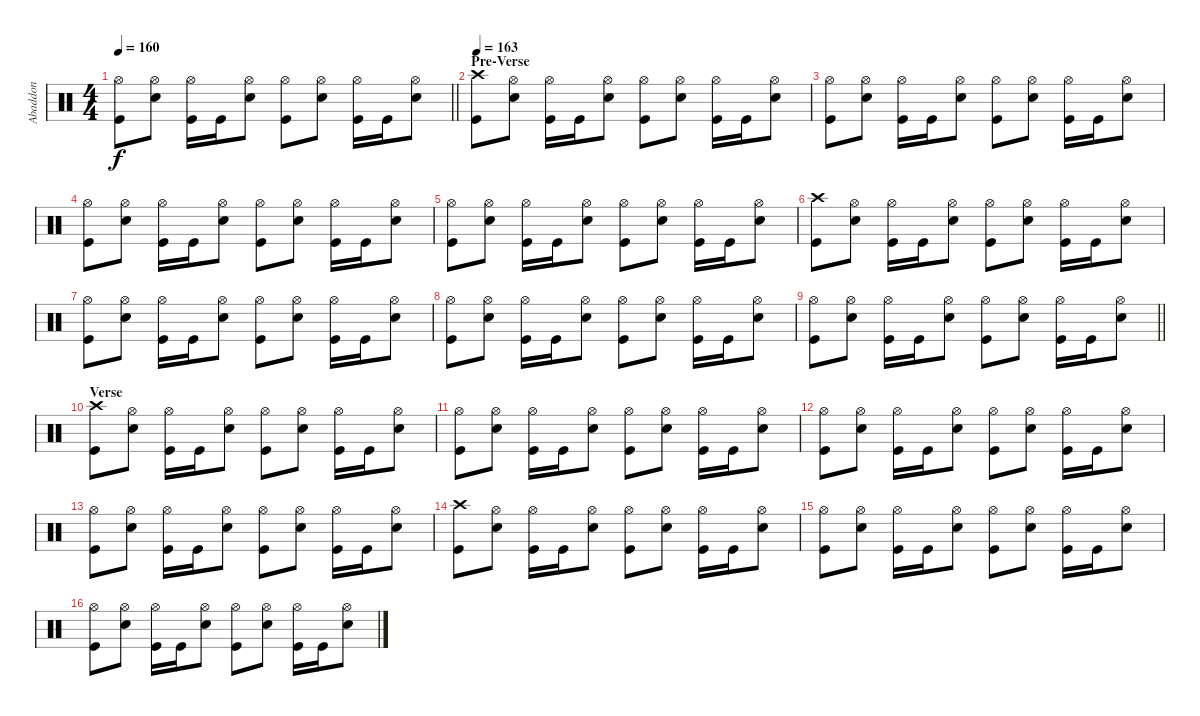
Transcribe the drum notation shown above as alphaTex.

\track ("Abaddon" "Abaddon") {instrument percussion}
\staff {score}
\articulation defaults
\ts (4 4)
\tempo 160
\clef neutral
\barLineRight lightlight
\ks c
("Hi-Hat (open)" "Kick (hit)").8{dy f} ("Hi-Hat (open)" "Electric Snare (hit)").8 ("Hi-Hat (open)" "Kick (hit)").16 "Kick (hit)".16 ("Hi-Hat (open)" "Electric Snare (hit)").8 ("Hi-Hat (open)" "Kick (hit)").8 ("Hi-Hat (open)" "Electric Snare (hit)").8 ("Hi-Hat (open)" "Kick (hit)").16 "Kick (hit)".16 ("Hi-Hat (open)" "Electric Snare (hit)").8 |
\section ("" "Pre-Verse")
\tempo 163
("Crash high (hit)" "Kick (hit)").8 ("Hi-Hat (open)" "Electric Snare (hit)").8 ("Hi-Hat (open)" "Kick (hit)").16 "Kick (hit)".16 ("Hi-Hat (open)" "Electric Snare (hit)").8 ("Hi-Hat (open)" "Kick (hit)").8 ("Hi-Hat (open)" "Electric Snare (hit)").8 ("Hi-Hat (open)" "Kick (hit)").16 "Kick (hit)".16 ("Hi-Hat (open)" "Electric Snare (hit)").8 |
("Hi-Hat (open)" "Kick (hit)").8 ("Hi-Hat (open)" "Electric Snare (hit)").8 ("Hi-Hat (open)" "Kick (hit)").16 "Kick (hit)".16 ("Hi-Hat (open)" "Electric Snare (hit)").8 ("Hi-Hat (open)" "Kick (hit)").8 ("Hi-Hat (open)" "Electric Snare (hit)").8 ("Hi-Hat (open)" "Kick (hit)").16 "Kick (hit)".16 ("Hi-Hat (open)" "Electric Snare (hit)").8 |
("Hi-Hat (open)" "Kick (hit)").8 ("Hi-Hat (open)" "Electric Snare (hit)").8 ("Hi-Hat (open)" "Kick (hit)").16 "Kick (hit)".16 ("Hi-Hat (open)" "Electric Snare (hit)").8 ("Hi-Hat (open)" "Kick (hit)").8 ("Hi-Hat (open)" "Electric Snare (hit)").8 ("Hi-Hat (open)" "Kick (hit)").16 "Kick (hit)".16 ("Hi-Hat (open)" "Electric Snare (hit)").8 |
("Hi-Hat (open)" "Kick (hit)").8 ("Hi-Hat (open)" "Electric Snare (hit)").8 ("Hi-Hat (open)" "Kick (hit)").16 "Kick (hit)".16 ("Hi-Hat (open)" "Electric Snare (hit)").8 ("Hi-Hat (open)" "Kick (hit)").8 ("Hi-Hat (open)" "Electric Snare (hit)").8 ("Hi-Hat (open)" "Kick (hit)").16 "Kick (hit)".16 ("Hi-Hat (open)" "Electric Snare (hit)").8 |
("Crash high (hit)" "Kick (hit)").8 ("Hi-Hat (open)" "Electric Snare (hit)").8 ("Hi-Hat (open)" "Kick (hit)").16 "Kick (hit)".16 ("Hi-Hat (open)" "Electric Snare (hit)").8 ("Hi-Hat (open)" "Kick (hit)").8 ("Hi-Hat (open)" "Electric Snare (hit)").8 ("Hi-Hat (open)" "Kick (hit)").16 "Kick (hit)".16 ("Hi-Hat (open)" "Electric Snare (hit)").8 |
("Hi-Hat (open)" "Kick (hit)").8 ("Hi-Hat (open)" "Electric Snare (hit)").8 ("Hi-Hat (open)" "Kick (hit)").16 "Kick (hit)".16 ("Hi-Hat (open)" "Electric Snare (hit)").8 ("Hi-Hat (open)" "Kick (hit)").8 ("Hi-Hat (open)" "Electric Snare (hit)").8 ("Hi-Hat (open)" "Kick (hit)").16 "Kick (hit)".16 ("Hi-Hat (open)" "Electric Snare (hit)").8 |
("Hi-Hat (open)" "Kick (hit)").8 ("Hi-Hat (open)" "Electric Snare (hit)").8 ("Hi-Hat (open)" "Kick (hit)").16 "Kick (hit)".16 ("Hi-Hat (open)" "Electric Snare (hit)").8 ("Hi-Hat (open)" "Kick (hit)").8 ("Hi-Hat (open)" "Electric Snare (hit)").8 ("Hi-Hat (open)" "Kick (hit)").16 "Kick (hit)".16 ("Hi-Hat (open)" "Electric Snare (hit)").8 |
\barLineRight lightlight
("Hi-Hat (open)" "Kick (hit)").8 ("Hi-Hat (open)" "Electric Snare (hit)").8 ("Hi-Hat (open)" "Kick (hit)").16 "Kick (hit)".16 ("Hi-Hat (open)" "Electric Snare (hit)").8 ("Hi-Hat (open)" "Kick (hit)").8 ("Hi-Hat (open)" "Electric Snare (hit)").8 ("Hi-Hat (open)" "Kick (hit)").16 "Kick (hit)".16 ("Hi-Hat (open)" "Electric Snare (hit)").8 |
\section ("" "Verse")
("Crash high (hit)" "Kick (hit)").8 ("Hi-Hat (open)" "Electric Snare (hit)").8 ("Hi-Hat (open)" "Kick (hit)").16 "Kick (hit)".16 ("Hi-Hat (open)" "Electric Snare (hit)").8 ("Hi-Hat (open)" "Kick (hit)").8 ("Hi-Hat (open)" "Electric Snare (hit)").8 ("Hi-Hat (open)" "Kick (hit)").16 "Kick (hit)".16 ("Hi-Hat (open)" "Electric Snare (hit)").8 |
("Hi-Hat (open)" "Kick (hit)").8 ("Hi-Hat (open)" "Electric Snare (hit)").8 ("Hi-Hat (open)" "Kick (hit)").16 "Kick (hit)".16 ("Hi-Hat (open)" "Electric Snare (hit)").8 ("Hi-Hat (open)" "Kick (hit)").8 ("Hi-Hat (open)" "Electric Snare (hit)").8 ("Hi-Hat (open)" "Kick (hit)").16 "Kick (hit)".16 ("Hi-Hat (open)" "Electric Snare (hit)").8 |
("Hi-Hat (open)" "Kick (hit)").8 ("Hi-Hat (open)" "Electric Snare (hit)").8 ("Hi-Hat (open)" "Kick (hit)").16 "Kick (hit)".16 ("Hi-Hat (open)" "Electric Snare (hit)").8 ("Hi-Hat (open)" "Kick (hit)").8 ("Hi-Hat (open)" "Electric Snare (hit)").8 ("Hi-Hat (open)" "Kick (hit)").16 "Kick (hit)".16 ("Hi-Hat (open)" "Electric Snare (hit)").8 |
("Hi-Hat (open)" "Kick (hit)").8 ("Hi-Hat (open)" "Electric Snare (hit)").8 ("Hi-Hat (open)" "Kick (hit)").16 "Kick (hit)".16 ("Hi-Hat (open)" "Electric Snare (hit)").8 ("Hi-Hat (open)" "Kick (hit)").8 ("Hi-Hat (open)" "Electric Snare (hit)").8 ("Hi-Hat (open)" "Kick (hit)").16 "Kick (hit)".16 ("Hi-Hat (open)" "Electric Snare (hit)").8 |
("Crash high (hit)" "Kick (hit)").8 ("Hi-Hat (open)" "Electric Snare (hit)").8 ("Hi-Hat (open)" "Kick (hit)").16 "Kick (hit)".16 ("Hi-Hat (open)" "Electric Snare (hit)").8 ("Hi-Hat (open)" "Kick (hit)").8 ("Hi-Hat (open)" "Electric Snare (hit)").8 ("Hi-Hat (open)" "Kick (hit)").16 "Kick (hit)".16 ("Hi-Hat (open)" "Electric Snare (hit)").8 |
("Hi-Hat (open)" "Kick (hit)").8 ("Hi-Hat (open)" "Electric Snare (hit)").8 ("Hi-Hat (open)" "Kick (hit)").16 "Kick (hit)".16 ("Hi-Hat (open)" "Electric Snare (hit)").8 ("Hi-Hat (open)" "Kick (hit)").8 ("Hi-Hat (open)" "Electric Snare (hit)").8 ("Hi-Hat (open)" "Kick (hit)").16 "Kick (hit)".16 ("Hi-Hat (open)" "Electric Snare (hit)").8 |
("Hi-Hat (open)" "Kick (hit)").8 ("Hi-Hat (open)" "Electric Snare (hit)").8 ("Hi-Hat (open)" "Kick (hit)").16 "Kick (hit)".16 ("Hi-Hat (open)" "Electric Snare (hit)").8 ("Hi-Hat (open)" "Kick (hit)").8 ("Hi-Hat (open)" "Electric Snare (hit)").8 ("Hi-Hat (open)" "Kick (hit)").16 "Kick (hit)".16 ("Hi-Hat (open)" "Electric Snare (hit)").8
